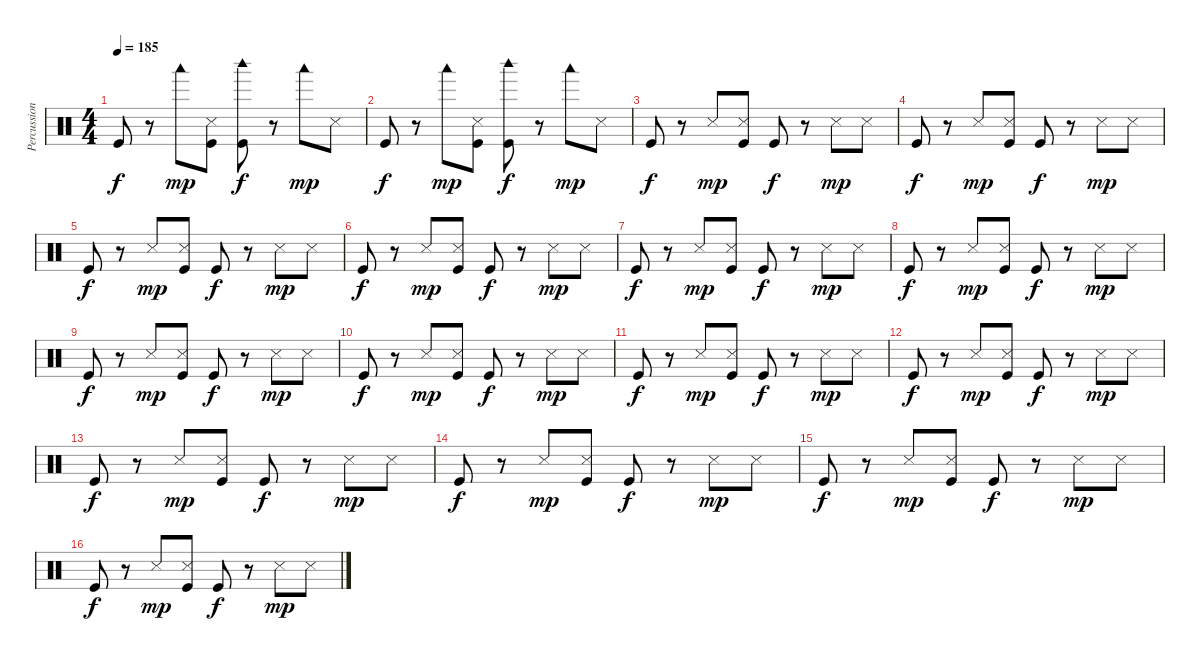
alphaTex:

\track ("Percussion" "Percussion") {instrument percussion}
\staff {score}
\articulation defaults
\ts (4 4)
\tempo 185
\clef neutral
\ks c "Kick (hit)".8{dy f}
r.8 "Woodblock low (hit)".8{dy mp} ("Metronome (hit)" "Kick (hit)").8 ("Woodblock high (hit)" "Kick (hit)").8{dy f} r.8 "Woodblock low (hit)".8{dy mp} "Snare (side stick) 3".8 |
"Kick (hit)".8{dy f} r.8 "Woodblock low (hit)".8{dy mp} ("Metronome (hit)" "Kick (hit)").8 ("Woodblock high (hit)" "Kick (hit)").8{dy f} r.8 "Woodblock low (hit)".8{dy mp} "Snare (side stick) 3".8 |
"Kick (hit)".8{dy f} r.8 "Metronome (hit)".8{dy mp} ("Metronome (hit)" "Kick (hit)").8 "Kick (hit)".8{dy f} r.8 "Snare (side stick) 3".8{dy mp} "Snare (side stick) 3".8 |
"Kick (hit)".8{dy f} r.8 "Metronome (hit)".8{dy mp} ("Metronome (hit)" "Kick (hit)").8 "Kick (hit)".8{dy f} r.8 "Snare (side stick) 3".8{dy mp} "Snare (side stick) 3".8 |
"Kick (hit)".8{dy f} r.8 "Metronome (hit)".8{dy mp} ("Metronome (hit)" "Kick (hit)").8 "Kick (hit)".8{dy f} r.8 "Snare (side stick) 3".8{dy mp} "Snare (side stick) 3".8 |
"Kick (hit)".8{dy f} r.8 "Metronome (hit)".8{dy mp} ("Metronome (hit)" "Kick (hit)").8 "Kick (hit)".8{dy f} r.8 "Snare (side stick) 3".8{dy mp} "Snare (side stick) 3".8 |
"Kick (hit)".8{dy f} r.8 "Metronome (hit)".8{dy mp} ("Metronome (hit)" "Kick (hit)").8 "Kick (hit)".8{dy f} r.8 "Snare (side stick) 3".8{dy mp} "Snare (side stick) 3".8 |
"Kick (hit)".8{dy f} r.8 "Metronome (hit)".8{dy mp} ("Metronome (hit)" "Kick (hit)").8 "Kick (hit)".8{dy f} r.8 "Snare (side stick) 3".8{dy mp} "Snare (side stick) 3".8 |
"Kick (hit)".8{dy f} r.8 "Metronome (hit)".8{dy mp} ("Metronome (hit)" "Kick (hit)").8 "Kick (hit)".8{dy f} r.8 "Snare (side stick) 3".8{dy mp} "Snare (side stick) 3".8 |
"Kick (hit)".8{dy f} r.8 "Metronome (hit)".8{dy mp} ("Metronome (hit)" "Kick (hit)").8 "Kick (hit)".8{dy f} r.8 "Snare (side stick) 3".8{dy mp} "Snare (side stick) 3".8 |
"Kick (hit)".8{dy f} r.8 "Metronome (hit)".8{dy mp} ("Metronome (hit)" "Kick (hit)").8 "Kick (hit)".8{dy f} r.8 "Snare (side stick) 3".8{dy mp} "Snare (side stick) 3".8 |
"Kick (hit)".8{dy f} r.8 "Metronome (hit)".8{dy mp} ("Metronome (hit)" "Kick (hit)").8 "Kick (hit)".8{dy f} r.8 "Snare (side stick) 3".8{dy mp} "Snare (side stick) 3".8 |
"Kick (hit)".8{dy f} r.8 "Metronome (hit)".8{dy mp} ("Metronome (hit)" "Kick (hit)").8 "Kick (hit)".8{dy f} r.8 "Snare (side stick) 3".8{dy mp} "Snare (side stick) 3".8 |
"Kick (hit)".8{dy f} r.8 "Metronome (hit)".8{dy mp} ("Metronome (hit)" "Kick (hit)").8 "Kick (hit)".8{dy f} r.8 "Snare (side stick) 3".8{dy mp} "Snare (side stick) 3".8 |
"Kick (hit)".8{dy f} r.8 "Metronome (hit)".8{dy mp} ("Metronome (hit)" "Kick (hit)").8 "Kick (hit)".8{dy f} r.8 "Snare (side stick) 3".8{dy mp} "Snare (side stick) 3".8 |
"Kick (hit)".8{dy f} r.8 "Metronome (hit)".8{dy mp} ("Metronome (hit)" "Kick (hit)").8 "Kick (hit)".8{dy f} r.8 "Snare (side stick) 3".8{dy mp} "Snare (side stick) 3".8
